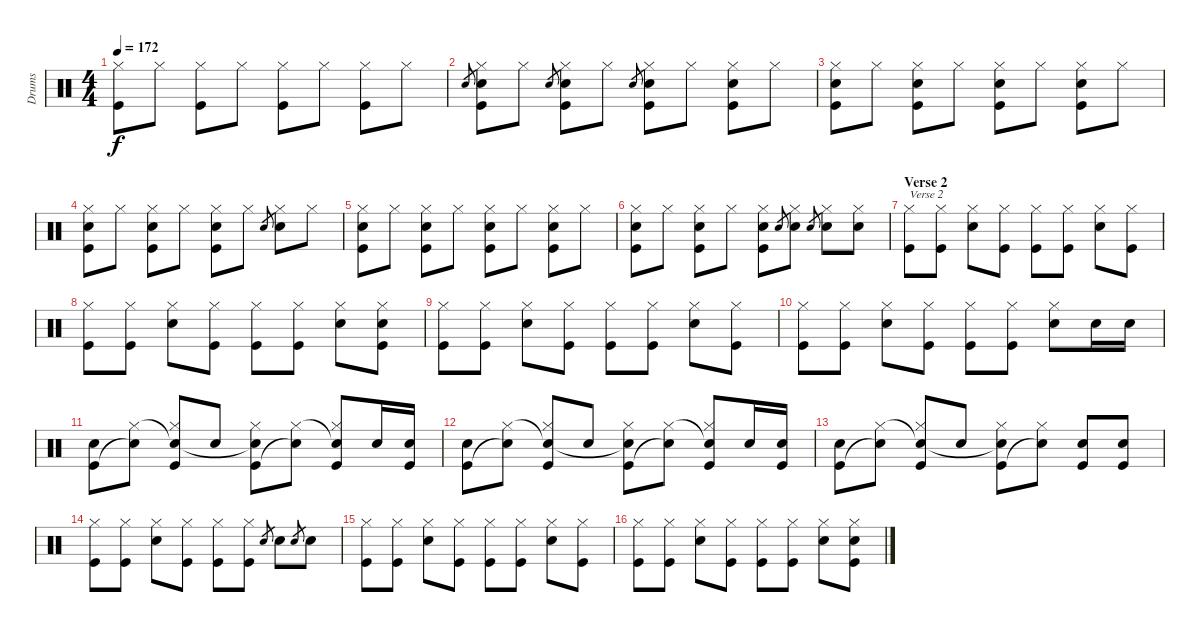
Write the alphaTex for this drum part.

\track ("Drums" "Drums") {instrument percussion}
\staff {score}
\articulation defaults
\ts (4 4)
\tempo 172
\clef neutral
\ks c
("Kick (hit)" "Hi-Hat (closed)").8{dy f} "Hi-Hat (closed)".8 ("Kick (hit)" "Hi-Hat (closed)").8 "Hi-Hat (closed)".8 ("Kick (hit)" "Hi-Hat (closed)").8 "Hi-Hat (closed)".8 ("Kick (hit)" "Hi-Hat (closed)").8 "Hi-Hat (closed)".8 |
"Snare (hit) 2".8{gr} ("Kick (hit)" "Snare (hit) 2" "Hi-Hat (closed)").8 "Hi-Hat (closed)".8 "Snare (hit) 2".8{gr} ("Kick (hit)" "Snare (hit) 2" "Hi-Hat (closed)").8 "Hi-Hat (closed)".8 "Snare (hit) 2".8{gr} ("Kick (hit)" "Snare (hit) 2" "Hi-Hat (closed)").8 "Hi-Hat (closed)".8 ("Kick (hit)" "Snare (hit) 2" "Hi-Hat (closed)").8 "Hi-Hat (closed)".8 |
("Kick (hit)" "Snare (hit) 2" "Hi-Hat (closed)").8 "Hi-Hat (closed)".8 ("Kick (hit)" "Snare (hit) 2" "Hi-Hat (closed)").8 "Hi-Hat (closed)".8 ("Kick (hit)" "Snare (hit) 2" "Hi-Hat (closed)").8 "Hi-Hat (closed)".8 ("Kick (hit)" "Snare (hit) 2" "Hi-Hat (closed)").8 "Hi-Hat (closed)".8 |
("Kick (hit)" "Snare (hit) 2" "Hi-Hat (closed)").8 "Hi-Hat (closed)".8 ("Kick (hit)" "Snare (hit) 2" "Hi-Hat (closed)").8 "Hi-Hat (closed)".8 ("Kick (hit)" "Snare (hit) 2" "Hi-Hat (closed)").8 "Hi-Hat (closed)".8 "Snare (hit) 2".8{gr} ("Snare (hit) 2" "Hi-Hat (closed)").8 "Hi-Hat (closed)".8 |
("Kick (hit)" "Snare (hit) 2" "Hi-Hat (closed)").8 "Hi-Hat (closed)".8 ("Kick (hit)" "Snare (hit) 2" "Hi-Hat (closed)").8 "Hi-Hat (closed)".8 ("Kick (hit)" "Snare (hit) 2" "Hi-Hat (closed)").8 "Hi-Hat (closed)".8 ("Kick (hit)" "Snare (hit) 2" "Hi-Hat (closed)").8 "Hi-Hat (closed)".8 |
("Kick (hit)" "Snare (hit) 2" "Hi-Hat (closed)").8 "Hi-Hat (closed)".8 ("Kick (hit)" "Snare (hit) 2" "Hi-Hat (closed)").8 "Hi-Hat (closed)".8 ("Kick (hit)" "Snare (hit) 2" "Hi-Hat (closed)").8 "Snare (hit) 2".8{gr} ("Snare (hit) 2" "Hi-Hat (closed)").8 "Snare (hit) 2".8{gr} ("Snare (hit) 2" "Hi-Hat (closed)").8 ("Snare (hit) 2" "Hi-Hat (closed)").8 |
\section ("" "Verse 2")
("Kick (hit)" "Hi-Hat (closed)").8{txt "Verse 2"} ("Kick (hit)" "Hi-Hat (closed)").8 ("Snare (hit) 2" "Hi-Hat (closed)").8 ("Kick (hit)" "Hi-Hat (closed)").8 ("Kick (hit)" "Hi-Hat (closed)").8 ("Kick (hit)" "Hi-Hat (closed)").8 ("Snare (hit) 2" "Hi-Hat (closed)").8 ("Kick (hit)" "Hi-Hat (closed)").8 |
("Kick (hit)" "Hi-Hat (closed)").8 ("Kick (hit)" "Hi-Hat (closed)").8 ("Snare (hit) 2" "Hi-Hat (closed)").8 ("Kick (hit)" "Hi-Hat (closed)").8 ("Kick (hit)" "Hi-Hat (closed)").8 ("Kick (hit)" "Hi-Hat (closed)").8 ("Snare (hit) 2" "Hi-Hat (closed)").8 ("Kick (hit)" "Snare (hit) 2" "Hi-Hat (closed)").8 |
("Kick (hit)" "Hi-Hat (closed)").8 ("Kick (hit)" "Hi-Hat (closed)").8 ("Snare (hit) 2" "Hi-Hat (closed)").8 ("Kick (hit)" "Hi-Hat (closed)").8 ("Kick (hit)" "Hi-Hat (closed)").8 ("Kick (hit)" "Hi-Hat (closed)").8 ("Snare (hit) 2" "Hi-Hat (closed)").8 ("Kick (hit)" "Hi-Hat (closed)").8 |
("Kick (hit)" "Hi-Hat (closed)").8 ("Kick (hit)" "Hi-Hat (closed)").8 ("Snare (hit) 2" "Hi-Hat (closed)").8 ("Kick (hit)" "Hi-Hat (closed)").8 ("Kick (hit)" "Hi-Hat (closed)").8 ("Kick (hit)" "Hi-Hat (closed)").8 ("Snare (hit) 2" "Hi-Hat (closed)").8 "Snare (hit) 2".16 "Snare (hit) 2".16 |
("Kick (hit)" "Snare (hit) 2").8 ("Snare (hit)"{t} "Hi-Hat (closed)").8 ("Kick (hit)" "Snare (hit) 2"{t} "Hi-Hat (closed)").8 "Snare (hit) 2".8 ("Kick (hit)" "Snare (hit)"{t} "Hi-Hat (closed)").8 ("Snare (hit)"{t} "Hi-Hat (closed)").8 ("Kick (hit)" "Snare (hit)"{t} "Hi-Hat (closed)").8 "Snare (hit) 2".16 ("Kick (hit)" "Snare (hit) 2").16 |
("Kick (hit)" "Snare (hit) 2").8 ("Snare (hit)"{t} "Hi-Hat (closed)").8 ("Kick (hit)" "Snare (hit) 2"{t} "Hi-Hat (closed)").8 "Snare (hit) 2".8 ("Kick (hit)" "Snare (hit)"{t} "Hi-Hat (closed)").8 ("Snare (hit)"{t} "Hi-Hat (closed)").8 ("Kick (hit)" "Snare (hit)"{t} "Hi-Hat (closed)").8 "Snare (hit) 2".16 ("Kick (hit)" "Snare (hit) 2").16 |
("Kick (hit)" "Snare (hit) 2").8 ("Snare (hit)"{t} "Hi-Hat (closed)").8 ("Kick (hit)" "Snare (hit) 2"{t} "Hi-Hat (closed)").8 "Snare (hit) 2".8 ("Kick (hit)" "Snare (hit)"{t} "Hi-Hat (closed)").8 ("Snare (hit)"{t} "Hi-Hat (closed)").8 ("Kick (hit)" "Snare (hit) 2").8 ("Kick (hit)" "Snare (hit) 2").8 |
("Kick (hit)" "Hi-Hat (closed)").8 ("Kick (hit)" "Hi-Hat (closed)").8 ("Snare (hit) 2" "Hi-Hat (closed)").8 ("Kick (hit)" "Hi-Hat (closed)").8 ("Kick (hit)" "Hi-Hat (closed)").8 ("Kick (hit)" "Hi-Hat (closed)").8 "Snare (hit) 2".8{gr} "Snare (hit) 2".8 "Snare (hit) 2".8{gr} "Snare (hit) 2".8 |
("Kick (hit)" "Hi-Hat (closed)").8 ("Kick (hit)" "Hi-Hat (closed)").8 ("Snare (hit) 2" "Hi-Hat (closed)").8 ("Kick (hit)" "Hi-Hat (closed)").8 ("Kick (hit)" "Hi-Hat (closed)").8 ("Kick (hit)" "Hi-Hat (closed)").8 ("Snare (hit) 2" "Hi-Hat (closed)").8 ("Kick (hit)" "Hi-Hat (closed)").8 |
("Kick (hit)" "Hi-Hat (closed)").8 ("Kick (hit)" "Hi-Hat (closed)").8 ("Snare (hit) 2" "Hi-Hat (closed)").8 ("Kick (hit)" "Hi-Hat (closed)").8 ("Kick (hit)" "Hi-Hat (closed)").8 ("Kick (hit)" "Hi-Hat (closed)").8 ("Snare (hit) 2" "Hi-Hat (closed)").8 ("Kick (hit)" "Snare (hit) 2" "Hi-Hat (closed)").8
